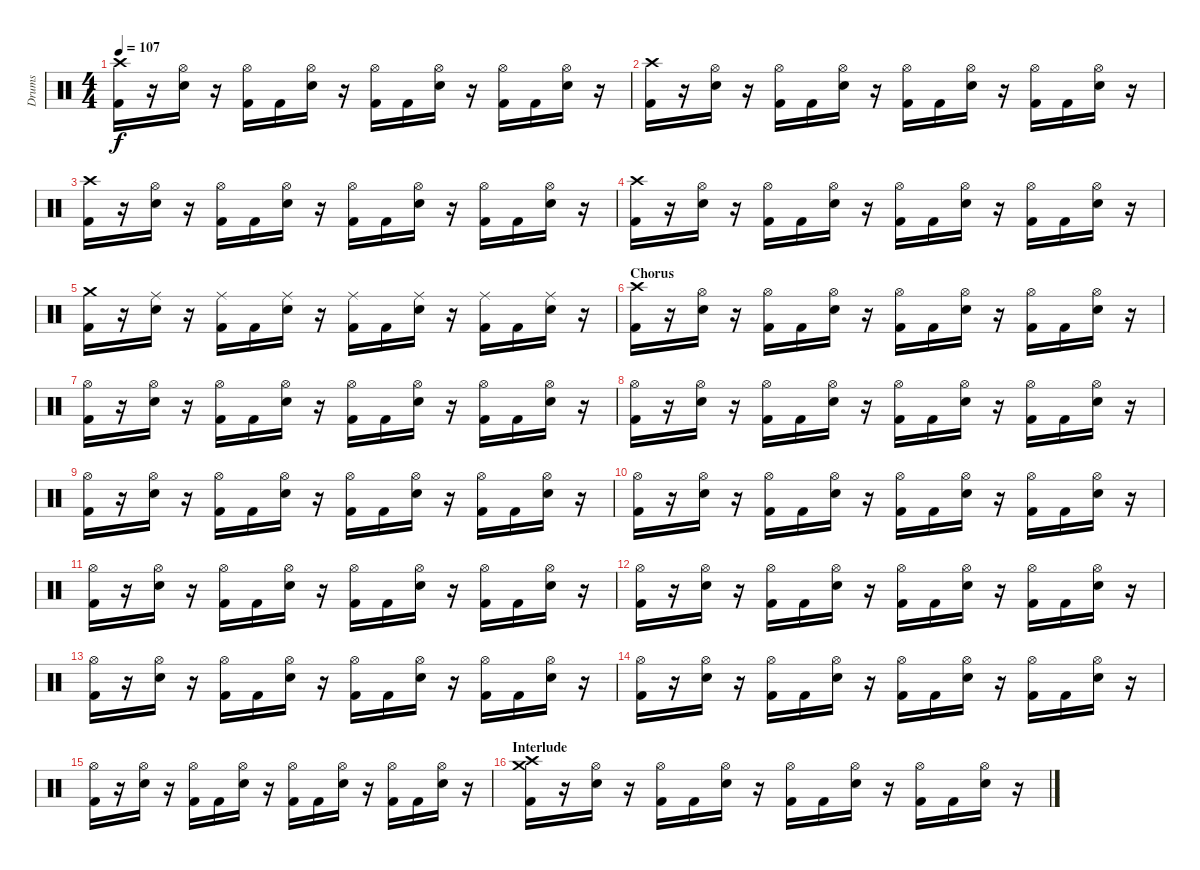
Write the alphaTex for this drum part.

\track ("Drums" "Drums") {instrument percussion}
\staff {score}
\articulation defaults
\ts (4 4)
\tempo 107
\clef neutral
\ks c
("Crash high (hit)" "Kick (hit) 2").16{dy f} r.16 ("Hi-Hat (open)" "Electric Snare (hit)").16 r.16 ("Hi-Hat (open)" "Kick (hit) 2").16 "Kick (hit) 2".16 ("Hi-Hat (open)" "Electric Snare (hit)").16 r.16 ("Hi-Hat (open)" "Kick (hit) 2").16 "Kick (hit) 2".16 ("Hi-Hat (open)" "Electric Snare (hit)").16 r.16 ("Hi-Hat (open)" "Kick (hit) 2").16 "Kick (hit) 2".16 ("Hi-Hat (open)" "Electric Snare (hit)").16 r.16 |
("Crash high (hit)" "Kick (hit) 2").16 r.16 ("Hi-Hat (open)" "Electric Snare (hit)").16 r.16 ("Hi-Hat (open)" "Kick (hit) 2").16 "Kick (hit) 2".16 ("Hi-Hat (open)" "Electric Snare (hit)").16 r.16 ("Hi-Hat (open)" "Kick (hit) 2").16 "Kick (hit) 2".16 ("Hi-Hat (open)" "Electric Snare (hit)").16 r.16 ("Hi-Hat (open)" "Kick (hit) 2").16 "Kick (hit) 2".16 ("Hi-Hat (open)" "Electric Snare (hit)").16 r.16 |
("Crash high (hit)" "Kick (hit) 2").16 r.16 ("Hi-Hat (open)" "Electric Snare (hit)").16 r.16 ("Hi-Hat (open)" "Kick (hit) 2").16 "Kick (hit) 2".16 ("Hi-Hat (open)" "Electric Snare (hit)").16 r.16 ("Hi-Hat (open)" "Kick (hit) 2").16 "Kick (hit) 2".16 ("Hi-Hat (open)" "Electric Snare (hit)").16 r.16 ("Hi-Hat (open)" "Kick (hit) 2").16 "Kick (hit) 2".16 ("Hi-Hat (open)" "Electric Snare (hit)").16 r.16 |
("Crash high (hit)" "Kick (hit) 2").16 r.16 ("Hi-Hat (open)" "Electric Snare (hit)").16 r.16 ("Hi-Hat (open)" "Kick (hit) 2").16 "Kick (hit) 2".16 ("Hi-Hat (open)" "Electric Snare (hit)").16 r.16 ("Hi-Hat (open)" "Kick (hit) 2").16 "Kick (hit) 2".16 ("Hi-Hat (open)" "Electric Snare (hit)").16 r.16 ("Hi-Hat (open)" "Kick (hit) 2").16 "Kick (hit) 2".16 ("Hi-Hat (open)" "Electric Snare (hit)").16 r.16 |
("Crash medium (hit)" "Kick (hit) 2").16 r.16 ("Ride (middle)" "Electric Snare (hit)").16 r.16 ("Ride (middle)" "Kick (hit) 2").16 "Kick (hit) 2".16 ("Ride (middle)" "Electric Snare (hit)").16 r.16 ("Ride (middle)" "Kick (hit) 2").16 "Kick (hit) 2".16 ("Ride (middle)" "Electric Snare (hit)").16 r.16 ("Ride (middle)" "Kick (hit) 2").16 "Kick (hit) 2".16 ("Ride (middle)" "Electric Snare (hit)").16 r.16 |
\section ("" "Chorus")
("Crash high (hit)" "Kick (hit) 2").16 r.16 ("Hi-Hat (open)" "Electric Snare (hit)").16 r.16 ("Hi-Hat (open)" "Kick (hit) 2").16 "Kick (hit) 2".16 ("Hi-Hat (open)" "Electric Snare (hit)").16 r.16 ("Hi-Hat (open)" "Kick (hit) 2").16 "Kick (hit) 2".16 ("Hi-Hat (open)" "Electric Snare (hit)").16 r.16 ("Hi-Hat (open)" "Kick (hit) 2").16 "Kick (hit) 2".16 ("Hi-Hat (open)" "Electric Snare (hit)").16 r.16 |
("Hi-Hat (open)" "Kick (hit) 2").16 r.16 ("Hi-Hat (open)" "Electric Snare (hit)").16 r.16 ("Hi-Hat (open)" "Kick (hit) 2").16 "Kick (hit) 2".16 ("Hi-Hat (open)" "Electric Snare (hit)").16 r.16 ("Hi-Hat (open)" "Kick (hit) 2").16 "Kick (hit) 2".16 ("Hi-Hat (open)" "Electric Snare (hit)").16 r.16 ("Hi-Hat (open)" "Kick (hit) 2").16 "Kick (hit) 2".16 ("Hi-Hat (open)" "Electric Snare (hit)").16 r.16 |
("Hi-Hat (open)" "Kick (hit) 2").16 r.16 ("Hi-Hat (open)" "Electric Snare (hit)").16 r.16 ("Hi-Hat (open)" "Kick (hit) 2").16 "Kick (hit) 2".16 ("Hi-Hat (open)" "Electric Snare (hit)").16 r.16 ("Hi-Hat (open)" "Kick (hit) 2").16 "Kick (hit) 2".16 ("Hi-Hat (open)" "Electric Snare (hit)").16 r.16 ("Hi-Hat (open)" "Kick (hit) 2").16 "Kick (hit) 2".16 ("Hi-Hat (open)" "Electric Snare (hit)").16 r.16 |
("Hi-Hat (open)" "Kick (hit) 2").16 r.16 ("Hi-Hat (open)" "Electric Snare (hit)").16 r.16 ("Hi-Hat (open)" "Kick (hit) 2").16 "Kick (hit) 2".16 ("Hi-Hat (open)" "Electric Snare (hit)").16 r.16 ("Hi-Hat (open)" "Kick (hit) 2").16 "Kick (hit) 2".16 ("Hi-Hat (open)" "Electric Snare (hit)").16 r.16 ("Hi-Hat (open)" "Kick (hit) 2").16 "Kick (hit) 2".16 ("Hi-Hat (open)" "Electric Snare (hit)").16 r.16 |
("Hi-Hat (open)" "Kick (hit) 2").16 r.16 ("Hi-Hat (open)" "Electric Snare (hit)").16 r.16 ("Hi-Hat (open)" "Kick (hit) 2").16 "Kick (hit) 2".16 ("Hi-Hat (open)" "Electric Snare (hit)").16 r.16 ("Hi-Hat (open)" "Kick (hit) 2").16 "Kick (hit) 2".16 ("Hi-Hat (open)" "Electric Snare (hit)").16 r.16 ("Hi-Hat (open)" "Kick (hit) 2").16 "Kick (hit) 2".16 ("Hi-Hat (open)" "Electric Snare (hit)").16 r.16 |
("Hi-Hat (open)" "Kick (hit) 2").16 r.16 ("Hi-Hat (open)" "Electric Snare (hit)").16 r.16 ("Hi-Hat (open)" "Kick (hit) 2").16 "Kick (hit) 2".16 ("Hi-Hat (open)" "Electric Snare (hit)").16 r.16 ("Hi-Hat (open)" "Kick (hit) 2").16 "Kick (hit) 2".16 ("Hi-Hat (open)" "Electric Snare (hit)").16 r.16 ("Hi-Hat (open)" "Kick (hit) 2").16 "Kick (hit) 2".16 ("Hi-Hat (open)" "Electric Snare (hit)").16 r.16 |
("Hi-Hat (open)" "Kick (hit) 2").16 r.16 ("Hi-Hat (open)" "Electric Snare (hit)").16 r.16 ("Hi-Hat (open)" "Kick (hit) 2").16 "Kick (hit) 2".16 ("Hi-Hat (open)" "Electric Snare (hit)").16 r.16 ("Hi-Hat (open)" "Kick (hit) 2").16 "Kick (hit) 2".16 ("Hi-Hat (open)" "Electric Snare (hit)").16 r.16 ("Hi-Hat (open)" "Kick (hit) 2").16 "Kick (hit) 2".16 ("Hi-Hat (open)" "Electric Snare (hit)").16 r.16 |
("Hi-Hat (open)" "Kick (hit) 2").16 r.16 ("Hi-Hat (open)" "Electric Snare (hit)").16 r.16 ("Hi-Hat (open)" "Kick (hit) 2").16 "Kick (hit) 2".16 ("Hi-Hat (open)" "Electric Snare (hit)").16 r.16 ("Hi-Hat (open)" "Kick (hit) 2").16 "Kick (hit) 2".16 ("Hi-Hat (open)" "Electric Snare (hit)").16 r.16 ("Hi-Hat (open)" "Kick (hit) 2").16 "Kick (hit) 2".16 ("Hi-Hat (open)" "Electric Snare (hit)").16 r.16 |
("Hi-Hat (open)" "Kick (hit) 2").16 r.16 ("Hi-Hat (open)" "Electric Snare (hit)").16 r.16 ("Hi-Hat (open)" "Kick (hit) 2").16 "Kick (hit) 2".16 ("Hi-Hat (open)" "Electric Snare (hit)").16 r.16 ("Hi-Hat (open)" "Kick (hit) 2").16 "Kick (hit) 2".16 ("Hi-Hat (open)" "Electric Snare (hit)").16 r.16 ("Hi-Hat (open)" "Kick (hit) 2").16 "Kick (hit) 2".16 ("Hi-Hat (open)" "Electric Snare (hit)").16 r.16 |
("Hi-Hat (open)" "Kick (hit) 2").16 r.16 ("Hi-Hat (open)" "Electric Snare (hit)").16 r.16 ("Hi-Hat (open)" "Kick (hit) 2").16 "Kick (hit) 2".16 ("Hi-Hat (open)" "Electric Snare (hit)").16 r.16 ("Hi-Hat (open)" "Kick (hit) 2").16 "Kick (hit) 2".16 ("Hi-Hat (open)" "Electric Snare (hit)").16 r.16 ("Hi-Hat (open)" "Kick (hit) 2").16 "Kick (hit) 2".16 ("Hi-Hat (open)" "Electric Snare (hit)").16 r.16 |
\section ("" "Interlude")
("Crash high (hit)" "Crash medium (hit)" "Kick (hit) 2").16 r.16 ("Hi-Hat (open)" "Electric Snare (hit)").16 r.16 ("Hi-Hat (open)" "Kick (hit) 2").16 "Kick (hit) 2".16 ("Hi-Hat (open)" "Electric Snare (hit)").16 r.16 ("Hi-Hat (open)" "Kick (hit) 2").16 "Kick (hit) 2".16 ("Hi-Hat (open)" "Electric Snare (hit)").16 r.16 ("Hi-Hat (open)" "Kick (hit) 2").16 "Kick (hit) 2".16 ("Hi-Hat (open)" "Electric Snare (hit)").16 r.16
